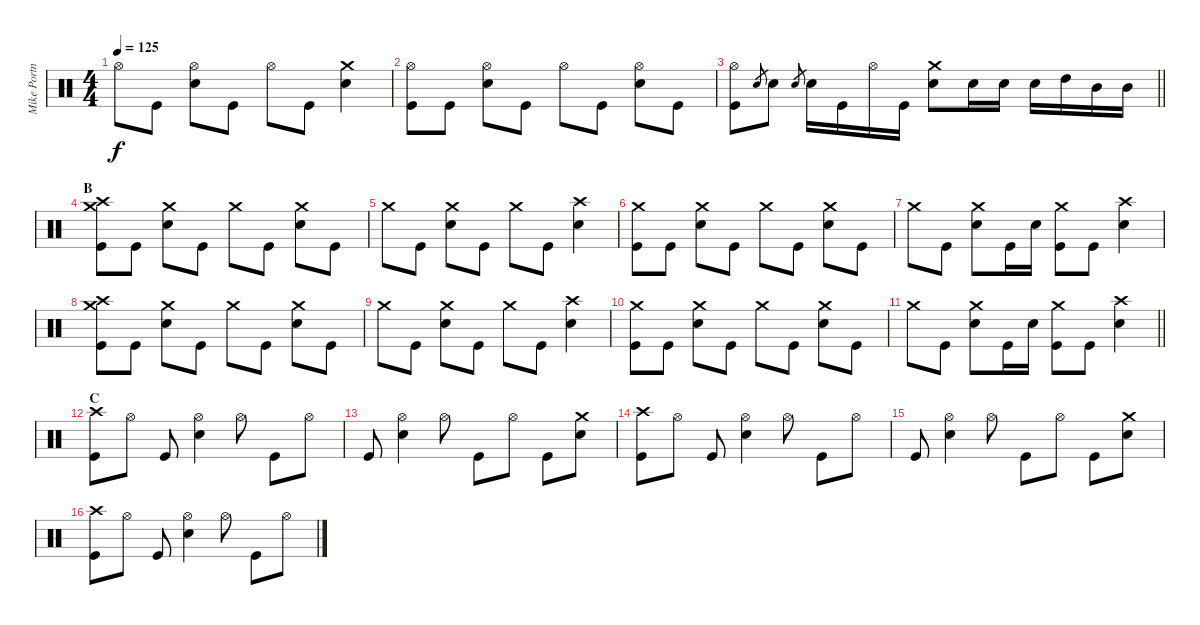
\track ("Mike Portnoy" "Mike Portn") {instrument percussion}
\staff {score}
\articulation defaults
\ts (4 4)
\tempo 125
\clef neutral
\ks c "Hi-Hat (open)".8{dy f} "Kick (hit)".8
("Hi-Hat (open)" "Electric Snare (hit)").8 "Kick (hit)".8 "Hi-Hat (open)".8 "Kick (hit)".8 ("Crash medium (hit)" "Electric Snare (hit)").4 |
("Hi-Hat (open)" "Kick (hit)").8 "Kick (hit)".8 ("Hi-Hat (open)" "Electric Snare (hit)").8 "Kick (hit)".8 "Hi-Hat (open)".8 "Kick (hit)".8 ("Hi-Hat (open)" "Electric Snare (hit)").8 "Kick (hit)".8 |
\barLineRight lightlight
("Hi-Hat (open)" "Kick (hit)").8 "Electric Snare (hit)".8{gr} "Electric Snare (hit)".8 "Electric Snare (hit)".8{gr} "Electric Snare (hit)".16 "Kick (hit)".16 "Hi-Hat (open)".16 "Kick (hit)".16 ("Crash medium (hit)" "Electric Snare (hit)").8 "Electric Snare (hit)".16 "Electric Snare (hit)".16 "Electric Snare (hit)".16 "High Tom (hit)".16 "Mid Tom (hit)".16 "Mid Tom (hit)".16 |
\section ("" "B")
("Crash high (hit)" "Crash medium (hit)" "Kick (hit)").8 "Kick (hit)".8 ("Crash medium (hit)" "Electric Snare (hit)").8 "Kick (hit)".8 "Crash medium (hit)".8 "Kick (hit)".8 ("Crash medium (hit)" "Electric Snare (hit)").8 "Kick (hit)".8 |
"Crash medium (hit)".8 "Kick (hit)".8 ("Crash medium (hit)" "Electric Snare (hit)").8 "Kick (hit)".8 "Crash medium (hit)".8 "Kick (hit)".8 ("Crash high (hit)" "Electric Snare (hit)").4 |
("Crash medium (hit)" "Kick (hit)").8 "Kick (hit)".8 ("Crash medium (hit)" "Electric Snare (hit)").8 "Kick (hit)".8 "Crash medium (hit)".8 "Kick (hit)".8 ("Crash medium (hit)" "Electric Snare (hit)").8 "Kick (hit)".8 |
"Crash medium (hit)".8 "Kick (hit)".8 ("Crash medium (hit)" "Electric Snare (hit)").8 "Kick (hit)".16 "Electric Snare (hit)".16 ("Crash medium (hit)" "Kick (hit)").8 "Kick (hit)".8 ("Crash high (hit)" "Electric Snare (hit)").4 |
("Crash high (hit)" "Crash medium (hit)" "Kick (hit)").8 "Kick (hit)".8 ("Crash medium (hit)" "Electric Snare (hit)").8 "Kick (hit)".8 "Crash medium (hit)".8 "Kick (hit)".8 ("Crash medium (hit)" "Electric Snare (hit)").8 "Kick (hit)".8 |
"Crash medium (hit)".8 "Kick (hit)".8 ("Crash medium (hit)" "Electric Snare (hit)").8 "Kick (hit)".8 "Crash medium (hit)".8 "Kick (hit)".8 ("Crash high (hit)" "Electric Snare (hit)").4 |
("Crash medium (hit)" "Kick (hit)").8 "Kick (hit)".8 ("Crash medium (hit)" "Electric Snare (hit)").8 "Kick (hit)".8 "Crash medium (hit)".8 "Kick (hit)".8 ("Crash medium (hit)" "Electric Snare (hit)").8 "Kick (hit)".8 |
\barLineRight lightlight "Crash medium (hit)".8 "Kick (hit)".8
("Crash medium (hit)" "Electric Snare (hit)").8 "Kick (hit)".16 "Electric Snare (hit)".16 ("Crash medium (hit)" "Kick (hit)").8 "Kick (hit)".8 ("Crash high (hit)" "Electric Snare (hit)").4 |
\section ("" "C")
("Crash high (hit)" "Kick (hit)").8 "Hi-Hat (open)".8 "Kick (hit)".8 ("Hi-Hat (open)" "Electric Snare (hit)").4 "Hi-Hat (open)".8 "Kick (hit)".8 "Hi-Hat (open)".8 |
"Kick (hit)".8 ("Hi-Hat (open)" "Electric Snare (hit)").4 "Hi-Hat (open)".8 "Kick (hit)".8 "Hi-Hat (open)".8 "Kick (hit)".8 ("Crash medium (hit)" "Electric Snare (hit)").8 |
("Crash high (hit)" "Kick (hit)").8 "Hi-Hat (open)".8 "Kick (hit)".8 ("Hi-Hat (open)" "Electric Snare (hit)").4 "Hi-Hat (open)".8 "Kick (hit)".8 "Hi-Hat (open)".8 |
"Kick (hit)".8 ("Hi-Hat (open)" "Electric Snare (hit)").4 "Hi-Hat (open)".8 "Kick (hit)".8 "Hi-Hat (open)".8 "Kick (hit)".8 ("Crash medium (hit)" "Electric Snare (hit)").8 |
("Crash high (hit)" "Kick (hit)").8 "Hi-Hat (open)".8 "Kick (hit)".8 ("Hi-Hat (open)" "Electric Snare (hit)").4 "Hi-Hat (open)".8 "Kick (hit)".8 "Hi-Hat (open)".8
